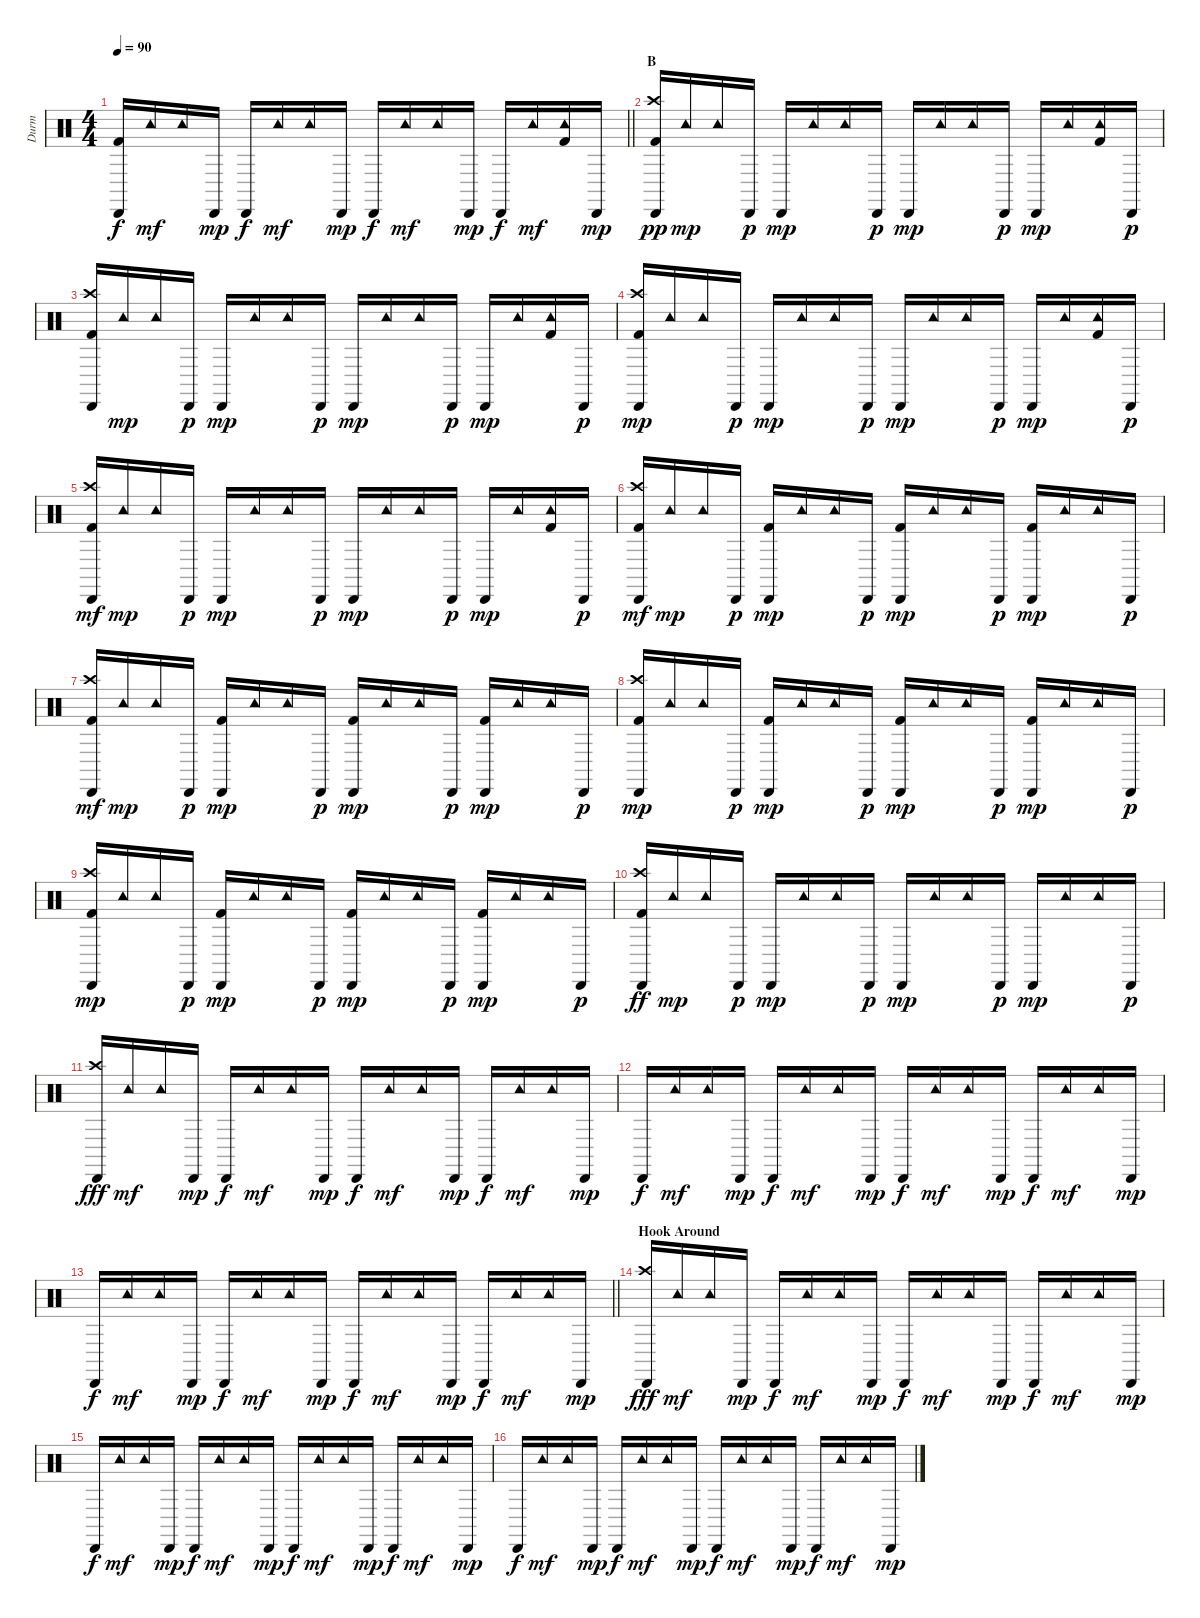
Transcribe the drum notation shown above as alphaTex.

\track ("Durm" "Durm") {instrument percussion}
\staff {score}
\articulation defaults
\ts (4 4)
\tempo 90
\clef neutral
\barLineRight lightlight
\ks c
("Cabasa (hit)" "Kick (hit) 2").16{dy f} "Tambourine (hit)".16{dy mf} "Tambourine (hit)".16 "Cabasa (hit)".16{dy mp} "Cabasa (hit)".16{dy f} "Tambourine (hit)".16{dy mf} "Tambourine (hit)".16 "Cabasa (hit)".16{dy mp} "Cabasa (hit)".16{dy f} "Tambourine (hit)".16{dy mf} "Tambourine (hit)".16 "Cabasa (hit)".16{dy mp} "Cabasa (hit)".16{dy f} "Tambourine (hit)".16{dy mf} ("Tambourine (hit)" "Kick (hit) 2").16 "Cabasa (hit)".16{dy mp} |
\section ("" "B")
("Cabasa (hit)" "Crash high (hit)" "Kick (hit) 2").16{dy pp} "Tambourine (hit)".16{dy mp} "Tambourine (hit)".16 "Cabasa (hit)".16{dy p} "Cabasa (hit)".16{dy mp} "Tambourine (hit)".16 "Tambourine (hit)".16 "Cabasa (hit)".16{dy p} "Cabasa (hit)".16{dy mp} "Tambourine (hit)".16 "Tambourine (hit)".16 "Cabasa (hit)".16{dy p} "Cabasa (hit)".16{dy mp} "Tambourine (hit)".16 ("Tambourine (hit)" "Kick (hit) 2").16 "Cabasa (hit)".16{dy p} |
("Cabasa (hit)" "Crash high (hit)" "Kick (hit) 2").16 "Tambourine (hit)".16{dy mp} "Tambourine (hit)".16 "Cabasa (hit)".16{dy p} "Cabasa (hit)".16{dy mp} "Tambourine (hit)".16 "Tambourine (hit)".16 "Cabasa (hit)".16{dy p} "Cabasa (hit)".16{dy mp} "Tambourine (hit)".16 "Tambourine (hit)".16 "Cabasa (hit)".16{dy p} "Cabasa (hit)".16{dy mp} "Tambourine (hit)".16 ("Tambourine (hit)" "Kick (hit) 2").16 "Cabasa (hit)".16{dy p} |
("Cabasa (hit)" "Crash high (hit)" "Kick (hit) 2").16{dy mp} "Tambourine (hit)".16 "Tambourine (hit)".16 "Cabasa (hit)".16{dy p} "Cabasa (hit)".16{dy mp} "Tambourine (hit)".16 "Tambourine (hit)".16 "Cabasa (hit)".16{dy p} "Cabasa (hit)".16{dy mp} "Tambourine (hit)".16 "Tambourine (hit)".16 "Cabasa (hit)".16{dy p} "Cabasa (hit)".16{dy mp} "Tambourine (hit)".16 ("Tambourine (hit)" "Kick (hit) 2").16 "Cabasa (hit)".16{dy p} |
("Cabasa (hit)" "Crash high (hit)" "Kick (hit) 2").16{dy mf} "Tambourine (hit)".16{dy mp} "Tambourine (hit)".16 "Cabasa (hit)".16{dy p} "Cabasa (hit)".16{dy mp} "Tambourine (hit)".16 "Tambourine (hit)".16 "Cabasa (hit)".16{dy p} "Cabasa (hit)".16{dy mp} "Tambourine (hit)".16 "Tambourine (hit)".16 "Cabasa (hit)".16{dy p} "Cabasa (hit)".16{dy mp} "Tambourine (hit)".16 ("Tambourine (hit)" "Kick (hit) 2").16 "Cabasa (hit)".16{dy p} |
("Cabasa (hit)" "Crash high (hit)" "Kick (hit) 2").16{dy mf} "Tambourine (hit)".16{dy mp} "Tambourine (hit)".16 "Cabasa (hit)".16{dy p} ("Cabasa (hit)" "Kick (hit) 2").16{dy mp} "Tambourine (hit)".16 "Tambourine (hit)".16 "Cabasa (hit)".16{dy p} ("Cabasa (hit)" "Kick (hit) 2").16{dy mp} "Tambourine (hit)".16 "Tambourine (hit)".16 "Cabasa (hit)".16{dy p} ("Cabasa (hit)" "Kick (hit) 2").16{dy mp} "Tambourine (hit)".16 "Tambourine (hit)".16 "Cabasa (hit)".16{dy p} |
("Cabasa (hit)" "Crash high (hit)" "Kick (hit) 2").16{dy mf} "Tambourine (hit)".16{dy mp} "Tambourine (hit)".16 "Cabasa (hit)".16{dy p} ("Cabasa (hit)" "Kick (hit) 2").16{dy mp} "Tambourine (hit)".16 "Tambourine (hit)".16 "Cabasa (hit)".16{dy p} ("Cabasa (hit)" "Kick (hit) 2").16{dy mp} "Tambourine (hit)".16 "Tambourine (hit)".16 "Cabasa (hit)".16{dy p} ("Cabasa (hit)" "Kick (hit) 2").16{dy mp} "Tambourine (hit)".16 "Tambourine (hit)".16 "Cabasa (hit)".16{dy p} |
("Cabasa (hit)" "Crash high (hit)" "Kick (hit) 2").16{dy mp} "Tambourine (hit)".16 "Tambourine (hit)".16 "Cabasa (hit)".16{dy p} ("Cabasa (hit)" "Kick (hit) 2").16{dy mp} "Tambourine (hit)".16 "Tambourine (hit)".16 "Cabasa (hit)".16{dy p} ("Cabasa (hit)" "Kick (hit) 2").16{dy mp} "Tambourine (hit)".16 "Tambourine (hit)".16 "Cabasa (hit)".16{dy p} ("Cabasa (hit)" "Kick (hit) 2").16{dy mp} "Tambourine (hit)".16 "Tambourine (hit)".16 "Cabasa (hit)".16{dy p} |
("Cabasa (hit)" "Crash high (hit)" "Kick (hit) 2").16{dy mp} "Tambourine (hit)".16 "Tambourine (hit)".16 "Cabasa (hit)".16{dy p} ("Cabasa (hit)" "Kick (hit) 2").16{dy mp} "Tambourine (hit)".16 "Tambourine (hit)".16 "Cabasa (hit)".16{dy p} ("Cabasa (hit)" "Kick (hit) 2").16{dy mp} "Tambourine (hit)".16 "Tambourine (hit)".16 "Cabasa (hit)".16{dy p} ("Cabasa (hit)" "Kick (hit) 2").16{dy mp} "Tambourine (hit)".16 "Tambourine (hit)".16 "Cabasa (hit)".16{dy p} |
("Cabasa (hit)" "Crash high (hit)" "Kick (hit) 2").16{dy ff} "Tambourine (hit)".16{dy mp} "Tambourine (hit)".16 "Cabasa (hit)".16{dy p} "Cabasa (hit)".16{dy mp} "Tambourine (hit)".16 "Tambourine (hit)".16 "Cabasa (hit)".16{dy p} "Cabasa (hit)".16{dy mp} "Tambourine (hit)".16 "Tambourine (hit)".16 "Cabasa (hit)".16{dy p} "Cabasa (hit)".16{dy mp} "Tambourine (hit)".16 "Tambourine (hit)".16 "Cabasa (hit)".16{dy p} |
("Cabasa (hit)" "Crash high (hit)").16{dy fff} "Tambourine (hit)".16{dy mf} "Tambourine (hit)".16 "Cabasa (hit)".16{dy mp} "Cabasa (hit)".16{dy f} "Tambourine (hit)".16{dy mf} "Tambourine (hit)".16 "Cabasa (hit)".16{dy mp} "Cabasa (hit)".16{dy f} "Tambourine (hit)".16{dy mf} "Tambourine (hit)".16 "Cabasa (hit)".16{dy mp} "Cabasa (hit)".16{dy f} "Tambourine (hit)".16{dy mf} "Tambourine (hit)".16 "Cabasa (hit)".16{dy mp} |
"Cabasa (hit)".16{dy f} "Tambourine (hit)".16{dy mf} "Tambourine (hit)".16 "Cabasa (hit)".16{dy mp} "Cabasa (hit)".16{dy f} "Tambourine (hit)".16{dy mf} "Tambourine (hit)".16 "Cabasa (hit)".16{dy mp} "Cabasa (hit)".16{dy f} "Tambourine (hit)".16{dy mf} "Tambourine (hit)".16 "Cabasa (hit)".16{dy mp} "Cabasa (hit)".16{dy f} "Tambourine (hit)".16{dy mf} "Tambourine (hit)".16 "Cabasa (hit)".16{dy mp} |
\barLineRight lightlight "Cabasa (hit)".16{dy f} "Tambourine (hit)".16{dy mf} "Tambourine (hit)".16 "Cabasa (hit)".16{dy mp} "Cabasa (hit)".16{dy f} "Tambourine (hit)".16{dy mf} "Tambourine (hit)".16 "Cabasa (hit)".16{dy mp} "Cabasa (hit)".16{dy f} "Tambourine (hit)".16{dy mf} "Tambourine (hit)".16 "Cabasa (hit)".16{dy mp} "Cabasa (hit)".16{dy f} "Tambourine (hit)".16{dy mf} "Tambourine (hit)".16 "Cabasa (hit)".16{dy mp}
|
\section ("" "Hook Around")
("Cabasa (hit)" "Crash high (hit)").16{dy fff} "Tambourine (hit)".16{dy mf} "Tambourine (hit)".16 "Cabasa (hit)".16{dy mp} "Cabasa (hit)".16{dy f} "Tambourine (hit)".16{dy mf} "Tambourine (hit)".16 "Cabasa (hit)".16{dy mp} "Cabasa (hit)".16{dy f} "Tambourine (hit)".16{dy mf} "Tambourine (hit)".16 "Cabasa (hit)".16{dy mp} "Cabasa (hit)".16{dy f} "Tambourine (hit)".16{dy mf} "Tambourine (hit)".16 "Cabasa (hit)".16{dy mp} |
"Cabasa (hit)".16{dy f} "Tambourine (hit)".16{dy mf} "Tambourine (hit)".16 "Cabasa (hit)".16{dy mp} "Cabasa (hit)".16{dy f} "Tambourine (hit)".16{dy mf} "Tambourine (hit)".16 "Cabasa (hit)".16{dy mp} "Cabasa (hit)".16{dy f} "Tambourine (hit)".16{dy mf} "Tambourine (hit)".16 "Cabasa (hit)".16{dy mp} "Cabasa (hit)".16{dy f} "Tambourine (hit)".16{dy mf} "Tambourine (hit)".16 "Cabasa (hit)".16{dy mp} |
"Cabasa (hit)".16{dy f} "Tambourine (hit)".16{dy mf} "Tambourine (hit)".16 "Cabasa (hit)".16{dy mp} "Cabasa (hit)".16{dy f} "Tambourine (hit)".16{dy mf} "Tambourine (hit)".16 "Cabasa (hit)".16{dy mp} "Cabasa (hit)".16{dy f} "Tambourine (hit)".16{dy mf} "Tambourine (hit)".16 "Cabasa (hit)".16{dy mp} "Cabasa (hit)".16{dy f} "Tambourine (hit)".16{dy mf} "Tambourine (hit)".16 "Cabasa (hit)".16{dy mp}
